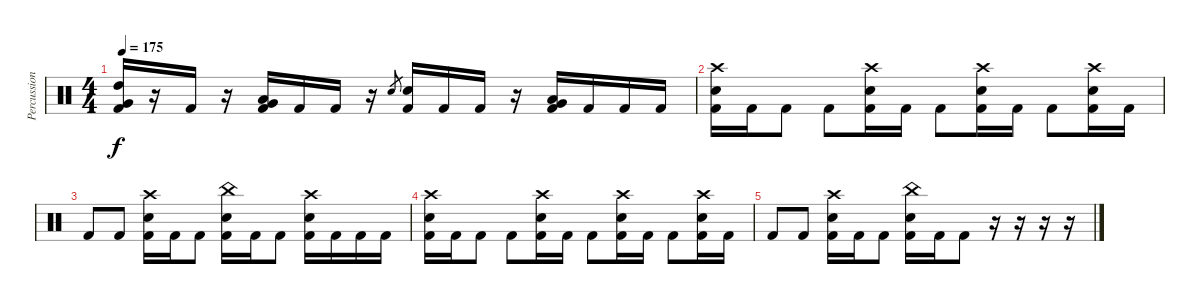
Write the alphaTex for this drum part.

\track ("Percussion" "Percussion") {instrument percussion}
\staff {score}
\articulation defaults
\ts (4 4)
\tempo 175
\clef neutral
\ks c
("High Tom (hit)" "Very Low Tom (hit)" "Kick (hit) 2").16{dy f} r.16 "Kick (hit) 2".16 r.16 ("Low Tom (hit)" "Very Low Tom (hit)" "Kick (hit) 2").16 "Kick (hit) 2".16 "Kick (hit) 2".16 r.16 "Snare (hit) 2".8{gr} ("Snare (hit) 2" "Kick (hit) 2").16 "Kick (hit) 2".16 "Kick (hit) 2".16 r.16 ("Low Tom (hit)" "Very Low Tom (hit)" "Kick (hit) 2").16 "Kick (hit) 2".16 "Kick (hit) 2".16 "Kick (hit) 2".16 |
("Crash high (hit)" "Snare (hit) 2" "Kick (hit) 2").16 "Kick (hit) 2".16 "Kick (hit) 2".8 "Kick (hit) 2".8 ("Crash high (hit)" "Snare (hit) 2" "Kick (hit) 2").16 "Kick (hit) 2".16 "Kick (hit) 2".8 ("Crash high (hit)" "Snare (hit) 2" "Kick (hit) 2").16 "Kick (hit) 2".16 "Kick (hit) 2".8 ("Crash high (hit)" "Snare (hit) 2" "Kick (hit) 2").16 "Kick (hit) 2".16 |
"Kick (hit) 2".8 "Kick (hit) 2".8 ("Crash high (hit)" "Snare (hit) 2" "Kick (hit) 2").16 "Kick (hit) 2".16 "Kick (hit) 2".8 ("China (hit)" "Snare (hit) 2" "Kick (hit) 2").16 "Kick (hit) 2".16 "Kick (hit) 2".8 ("Crash high (hit)" "Snare (hit) 2" "Kick (hit) 2").16 "Kick (hit) 2".16 "Kick (hit) 2".16 "Kick (hit) 2".16 |
("Crash high (hit)" "Snare (hit) 2" "Kick (hit) 2").16 "Kick (hit) 2".16 "Kick (hit) 2".8 "Kick (hit) 2".8 ("Crash high (hit)" "Snare (hit) 2" "Kick (hit) 2").16 "Kick (hit) 2".16 "Kick (hit) 2".8 ("Crash high (hit)" "Snare (hit) 2" "Kick (hit) 2").16 "Kick (hit) 2".16 "Kick (hit) 2".8 ("Crash high (hit)" "Snare (hit) 2" "Kick (hit) 2").16 "Kick (hit) 2".16 |
"Kick (hit) 2".8 "Kick (hit) 2".8 ("Crash high (hit)" "Snare (hit) 2" "Kick (hit) 2").16 "Kick (hit) 2".16 "Kick (hit) 2".8 ("China (hit)" "Snare (hit) 2" "Kick (hit) 2").16 "Kick (hit) 2".16 "Kick (hit) 2".8 r.16 r.16 r.16 r.16
